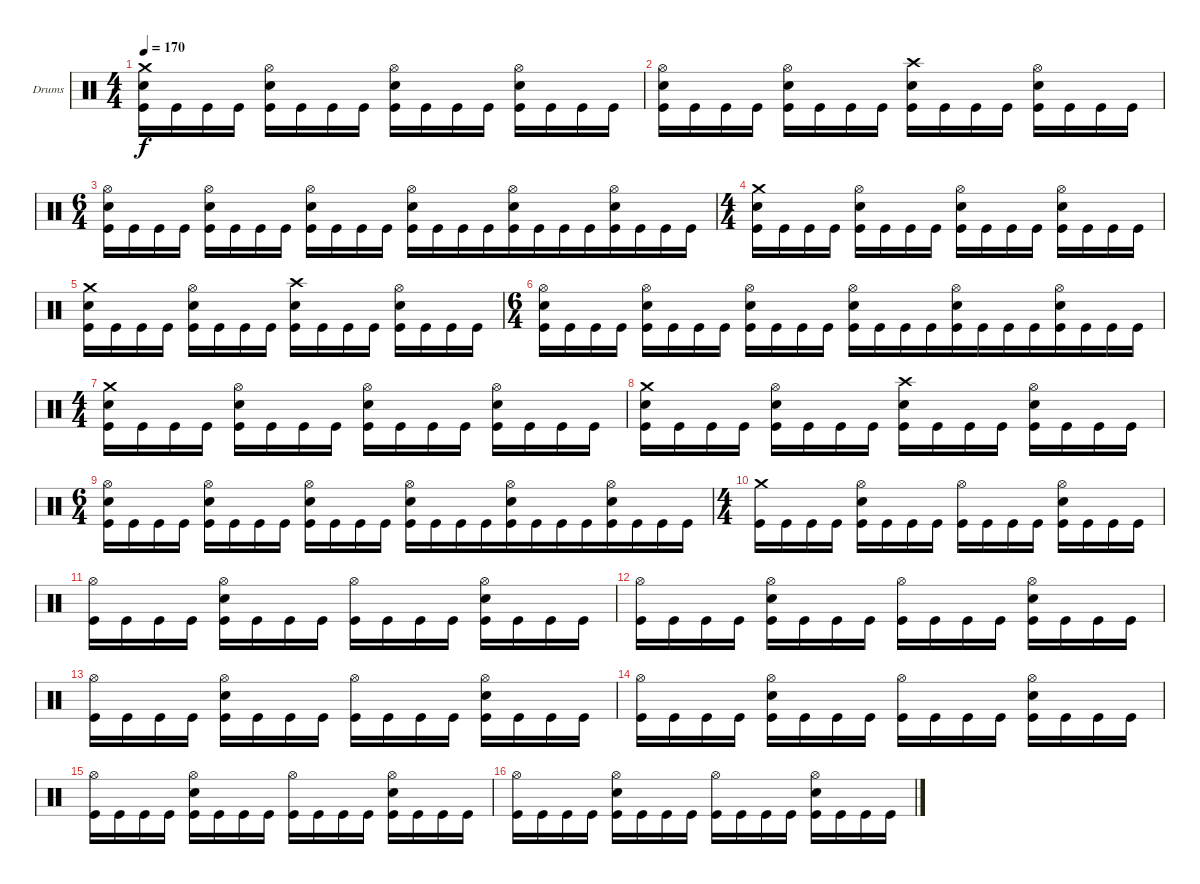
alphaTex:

\bracketExtendMode groupsimilarinstruments
\firstSystemTrackNameOrientation horizontal
\otherSystemsTrackNameOrientation horizontal
\track ("Дмитрий Кривенков" "Drums") {instrument percussion}
\staff {score}
\articulation defaults
\ts (4 4)
\beaming (8 2 2 2 2)
\tempo 170
\clef neutral
\ks c
("Crash medium (hit)" "Snare (hit) 2" "Kick (hit)").16{dy f} "Kick (hit)".16 "Kick (hit)".16 "Kick (hit)".16 ("Hi-Hat (open)" "Snare (hit) 2" "Kick (hit)").16 "Kick (hit)".16 "Kick (hit)".16 "Kick (hit)".16 ("Hi-Hat (open)" "Snare (hit) 2" "Kick (hit)").16 "Kick (hit)".16 "Kick (hit)".16 "Kick (hit)".16 ("Hi-Hat (open)" "Snare (hit) 2" "Kick (hit)").16 "Kick (hit)".16 "Kick (hit)".16 "Kick (hit)".16 |
("Hi-Hat (open)" "Snare (hit) 2" "Kick (hit)").16 "Kick (hit)".16 "Kick (hit)".16 "Kick (hit)".16 ("Hi-Hat (open)" "Snare (hit) 2" "Kick (hit)").16 "Kick (hit)".16 "Kick (hit)".16 "Kick (hit)".16 ("Crash high (hit)" "Snare (hit) 2" "Kick (hit)").16 "Kick (hit)".16 "Kick (hit)".16 "Kick (hit)".16 ("Hi-Hat (open)" "Snare (hit) 2" "Kick (hit)").16 "Kick (hit)".16 "Kick (hit)".16 "Kick (hit)".16 |
\ts (6 4)
\beaming (8 2 2 2 6)
("Hi-Hat (open)" "Snare (hit) 2" "Kick (hit)").16 "Kick (hit)".16 "Kick (hit)".16 "Kick (hit)".16 ("Hi-Hat (open)" "Snare (hit) 2" "Kick (hit)").16 "Kick (hit)".16 "Kick (hit)".16 "Kick (hit)".16 ("Hi-Hat (open)" "Snare (hit) 2" "Kick (hit)").16 "Kick (hit)".16 "Kick (hit)".16 "Kick (hit)".16 ("Hi-Hat (open)" "Snare (hit) 2" "Kick (hit)").16 "Kick (hit)".16 "Kick (hit)".16 "Kick (hit)".16 ("Hi-Hat (open)" "Snare (hit) 2" "Kick (hit)").16 "Kick (hit)".16 "Kick (hit)".16 "Kick (hit)".16 ("Hi-Hat (open)" "Snare (hit) 2" "Kick (hit)").16 "Kick (hit)".16 "Kick (hit)".16 "Kick (hit)".16 |
\ts (4 4)
\beaming (8 2 2 2 2)
("Crash medium (hit)" "Snare (hit) 2" "Kick (hit)").16 "Kick (hit)".16 "Kick (hit)".16 "Kick (hit)".16 ("Hi-Hat (open)" "Snare (hit) 2" "Kick (hit)").16 "Kick (hit)".16 "Kick (hit)".16 "Kick (hit)".16 ("Hi-Hat (open)" "Snare (hit) 2" "Kick (hit)").16 "Kick (hit)".16 "Kick (hit)".16 "Kick (hit)".16 ("Hi-Hat (open)" "Snare (hit) 2" "Kick (hit)").16 "Kick (hit)".16 "Kick (hit)".16 "Kick (hit)".16 |
("Crash medium (hit)" "Snare (hit) 2" "Kick (hit)").16 "Kick (hit)".16 "Kick (hit)".16 "Kick (hit)".16 ("Hi-Hat (open)" "Snare (hit) 2" "Kick (hit)").16 "Kick (hit)".16 "Kick (hit)".16 "Kick (hit)".16 ("Crash high (hit)" "Snare (hit) 2" "Kick (hit)").16 "Kick (hit)".16 "Kick (hit)".16 "Kick (hit)".16 ("Hi-Hat (open)" "Snare (hit) 2" "Kick (hit)").16 "Kick (hit)".16 "Kick (hit)".16 "Kick (hit)".16 |
\ts (6 4)
\beaming (8 2 2 2 6)
("Hi-Hat (open)" "Snare (hit) 2" "Kick (hit)").16 "Kick (hit)".16 "Kick (hit)".16 "Kick (hit)".16 ("Hi-Hat (open)" "Snare (hit) 2" "Kick (hit)").16 "Kick (hit)".16 "Kick (hit)".16 "Kick (hit)".16 ("Hi-Hat (open)" "Snare (hit) 2" "Kick (hit)").16 "Kick (hit)".16 "Kick (hit)".16 "Kick (hit)".16 ("Hi-Hat (open)" "Snare (hit) 2" "Kick (hit)").16 "Kick (hit)".16 "Kick (hit)".16 "Kick (hit)".16 ("Hi-Hat (open)" "Snare (hit) 2" "Kick (hit)").16 "Kick (hit)".16 "Kick (hit)".16 "Kick (hit)".16 ("Hi-Hat (open)" "Snare (hit) 2" "Kick (hit)").16 "Kick (hit)".16 "Kick (hit)".16 "Kick (hit)".16 |
\ts (4 4)
\beaming (8 2 2 2 2)
("Crash medium (hit)" "Snare (hit) 2" "Kick (hit)").16 "Kick (hit)".16 "Kick (hit)".16 "Kick (hit)".16 ("Hi-Hat (open)" "Snare (hit) 2" "Kick (hit)").16 "Kick (hit)".16 "Kick (hit)".16 "Kick (hit)".16 ("Hi-Hat (open)" "Snare (hit) 2" "Kick (hit)").16 "Kick (hit)".16 "Kick (hit)".16 "Kick (hit)".16 ("Hi-Hat (open)" "Snare (hit) 2" "Kick (hit)").16 "Kick (hit)".16 "Kick (hit)".16 "Kick (hit)".16 |
("Crash medium (hit)" "Snare (hit) 2" "Kick (hit)").16 "Kick (hit)".16 "Kick (hit)".16 "Kick (hit)".16 ("Hi-Hat (open)" "Snare (hit) 2" "Kick (hit)").16 "Kick (hit)".16 "Kick (hit)".16 "Kick (hit)".16 ("Crash high (hit)" "Snare (hit) 2" "Kick (hit)").16 "Kick (hit)".16 "Kick (hit)".16 "Kick (hit)".16 ("Hi-Hat (open)" "Snare (hit) 2" "Kick (hit)").16 "Kick (hit)".16 "Kick (hit)".16 "Kick (hit)".16 |
\ts (6 4)
\beaming (8 2 2 2 6)
("Hi-Hat (open)" "Snare (hit) 2" "Kick (hit)").16 "Kick (hit)".16 "Kick (hit)".16 "Kick (hit)".16 ("Hi-Hat (open)" "Snare (hit) 2" "Kick (hit)").16 "Kick (hit)".16 "Kick (hit)".16 "Kick (hit)".16 ("Hi-Hat (open)" "Snare (hit) 2" "Kick (hit)").16 "Kick (hit)".16 "Kick (hit)".16 "Kick (hit)".16 ("Hi-Hat (open)" "Snare (hit) 2" "Kick (hit)").16 "Kick (hit)".16 "Kick (hit)".16 "Kick (hit)".16 ("Hi-Hat (open)" "Snare (hit) 2" "Kick (hit)").16 "Kick (hit)".16 "Kick (hit)".16 "Kick (hit)".16 ("Hi-Hat (open)" "Snare (hit) 2" "Kick (hit)").16 "Kick (hit)".16 "Kick (hit)".16 "Kick (hit)".16 |
\ts (4 4)
\beaming (8 2 2 2 2)
("Crash medium (hit)" "Kick (hit)").16 "Kick (hit)".16 "Kick (hit)".16 "Kick (hit)".16 ("Hi-Hat (open)" "Snare (hit) 2" "Kick (hit)").16 "Kick (hit)".16 "Kick (hit)".16 "Kick (hit)".16 ("Hi-Hat (open)" "Kick (hit)").16 "Kick (hit)".16 "Kick (hit)".16 "Kick (hit)".16 ("Hi-Hat (open)" "Snare (hit) 2" "Kick (hit)").16 "Kick (hit)".16 "Kick (hit)".16 "Kick (hit)".16 |
("Hi-Hat (open)" "Kick (hit)").16 "Kick (hit)".16 "Kick (hit)".16 "Kick (hit)".16 ("Hi-Hat (open)" "Snare (hit) 2" "Kick (hit)").16 "Kick (hit)".16 "Kick (hit)".16 "Kick (hit)".16 ("Hi-Hat (open)" "Kick (hit)").16 "Kick (hit)".16 "Kick (hit)".16 "Kick (hit)".16 ("Hi-Hat (open)" "Snare (hit) 2" "Kick (hit)").16 "Kick (hit)".16 "Kick (hit)".16 "Kick (hit)".16 |
("Hi-Hat (open)" "Kick (hit)").16 "Kick (hit)".16 "Kick (hit)".16 "Kick (hit)".16 ("Hi-Hat (open)" "Snare (hit) 2" "Kick (hit)").16 "Kick (hit)".16 "Kick (hit)".16 "Kick (hit)".16 ("Hi-Hat (open)" "Kick (hit)").16 "Kick (hit)".16 "Kick (hit)".16 "Kick (hit)".16 ("Hi-Hat (open)" "Snare (hit) 2" "Kick (hit)").16 "Kick (hit)".16 "Kick (hit)".16 "Kick (hit)".16 |
("Hi-Hat (open)" "Kick (hit)").16 "Kick (hit)".16 "Kick (hit)".16 "Kick (hit)".16 ("Hi-Hat (open)" "Snare (hit) 2" "Kick (hit)").16 "Kick (hit)".16 "Kick (hit)".16 "Kick (hit)".16 ("Hi-Hat (open)" "Kick (hit)").16 "Kick (hit)".16 "Kick (hit)".16 "Kick (hit)".16 ("Hi-Hat (open)" "Snare (hit) 2" "Kick (hit)").16 "Kick (hit)".16 "Kick (hit)".16 "Kick (hit)".16 |
("Hi-Hat (open)" "Kick (hit)").16 "Kick (hit)".16 "Kick (hit)".16 "Kick (hit)".16 ("Hi-Hat (open)" "Snare (hit) 2" "Kick (hit)").16 "Kick (hit)".16 "Kick (hit)".16 "Kick (hit)".16 ("Hi-Hat (open)" "Kick (hit)").16 "Kick (hit)".16 "Kick (hit)".16 "Kick (hit)".16 ("Hi-Hat (open)" "Snare (hit) 2" "Kick (hit)").16 "Kick (hit)".16 "Kick (hit)".16 "Kick (hit)".16 |
("Hi-Hat (open)" "Kick (hit)").16 "Kick (hit)".16 "Kick (hit)".16 "Kick (hit)".16 ("Hi-Hat (open)" "Snare (hit) 2" "Kick (hit)").16 "Kick (hit)".16 "Kick (hit)".16 "Kick (hit)".16 ("Hi-Hat (open)" "Kick (hit)").16 "Kick (hit)".16 "Kick (hit)".16 "Kick (hit)".16 ("Hi-Hat (open)" "Snare (hit) 2" "Kick (hit)").16 "Kick (hit)".16 "Kick (hit)".16 "Kick (hit)".16 |
("Hi-Hat (open)" "Kick (hit)").16 "Kick (hit)".16 "Kick (hit)".16 "Kick (hit)".16 ("Hi-Hat (open)" "Snare (hit) 2" "Kick (hit)").16 "Kick (hit)".16 "Kick (hit)".16 "Kick (hit)".16 ("Hi-Hat (open)" "Kick (hit)").16 "Kick (hit)".16 "Kick (hit)".16 "Kick (hit)".16 ("Hi-Hat (open)" "Snare (hit) 2" "Kick (hit)").16 "Kick (hit)".16 "Kick (hit)".16 "Kick (hit)".16
